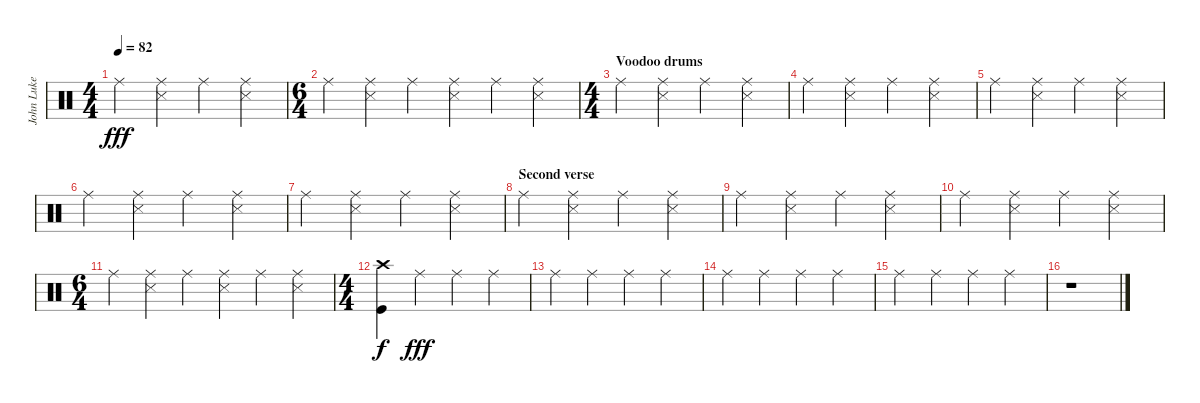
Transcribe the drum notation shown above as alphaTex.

\track ("John Luke (Drums)" "John Luke ") {instrument percussion}
\staff {score}
\articulation defaults
\ts (4 4)
\tempo 82
\clef neutral
\ks c "Ride (middle)".4{dy fff}
("Ride (middle)" "Snare (side stick) 3").4 "Ride (middle)".4 ("Ride (middle)" "Snare (side stick) 3").4 |
\ts (6 4)
"Ride (middle)".4 ("Ride (middle)" "Snare (side stick) 3").4 "Ride (middle)".4 ("Ride (middle)" "Snare (side stick) 3").4 "Ride (middle)".4 ("Ride (middle)" "Snare (side stick) 3").4 |
\ts (4 4)
\section ("" "Voodoo drums")
"Ride (middle)".4 ("Ride (middle)" "Snare (side stick) 3").4 "Ride (middle)".4 ("Ride (middle)" "Snare (side stick) 3").4 |
"Ride (middle)".4 ("Ride (middle)" "Snare (side stick) 3").4 "Ride (middle)".4 ("Ride (middle)" "Snare (side stick) 3").4 |
"Ride (middle)".4 ("Ride (middle)" "Snare (side stick) 3").4 "Ride (middle)".4 ("Ride (middle)" "Snare (side stick) 3").4 |
"Ride (middle)".4 ("Ride (middle)" "Snare (side stick) 3").4 "Ride (middle)".4 ("Ride (middle)" "Snare (side stick) 3").4 |
"Ride (middle)".4 ("Ride (middle)" "Snare (side stick) 3").4 "Ride (middle)".4 ("Ride (middle)" "Snare (side stick) 3").4 |
\section ("" "Second verse")
"Ride (middle)".4 ("Ride (middle)" "Snare (side stick) 3").4 "Ride (middle)".4 ("Ride (middle)" "Snare (side stick) 3").4 |
"Ride (middle)".4 ("Ride (middle)" "Snare (side stick) 3").4 "Ride (middle)".4 ("Ride (middle)" "Snare (side stick) 3").4 |
"Ride (middle)".4 ("Ride (middle)" "Snare (side stick) 3").4 "Ride (middle)".4 ("Ride (middle)" "Snare (side stick) 3").4 |
\ts (6 4)
"Ride (middle)".4 ("Ride (middle)" "Snare (side stick) 3").4 "Ride (middle)".4 ("Ride (middle)" "Snare (side stick) 3").4 "Ride (middle)".4 ("Ride (middle)" "Snare (side stick) 3").4 |
\ts (4 4)
("Crash high (hit)" "Kick (hit)").4{dy f} "Ride (middle)".4{dy fff} "Ride (middle)".4 "Ride (middle)".4 |
"Ride (middle)".4 "Ride (middle)".4 "Ride (middle)".4 "Ride (middle)".4 |
"Ride (middle)".4 "Ride (middle)".4 "Ride (middle)".4 "Ride (middle)".4 |
"Ride (middle)".4 "Ride (middle)".4 "Ride (middle)".4 "Ride (middle)".4 |
r.1
